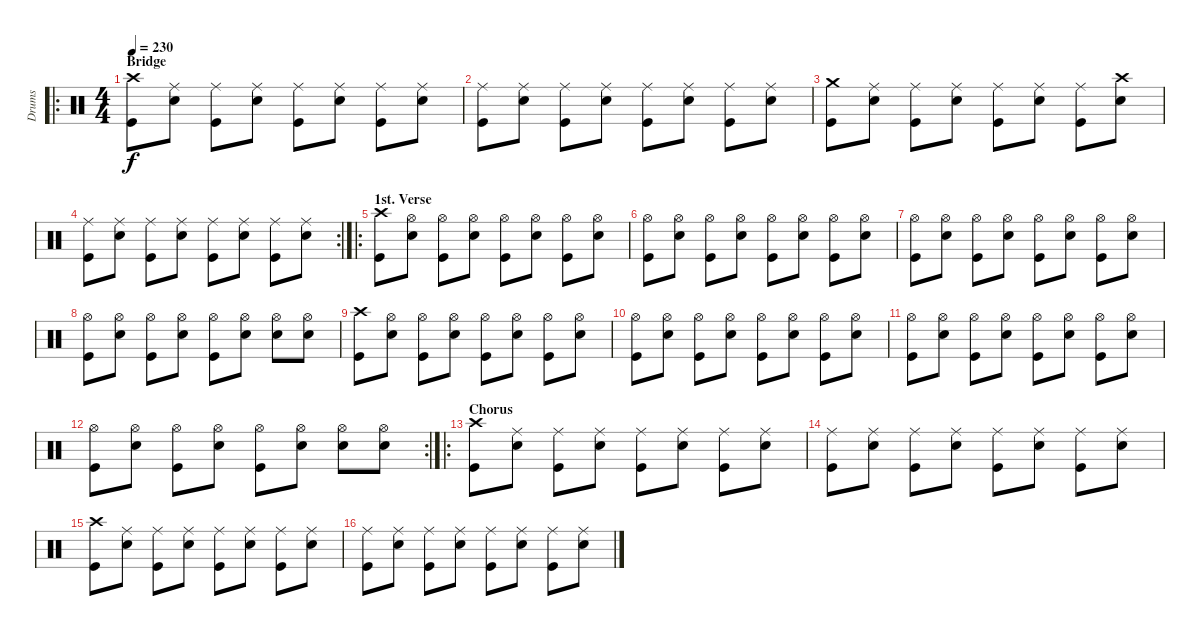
\track ("Drums" "Drums") {instrument percussion}
\staff {score}
\articulation defaults
\ro
\ts (4 4)
\section ("" "Bridge")
\tempo 230
\clef neutral
\ks c
("Crash high (hit)" "Kick (hit)").8{dy f} ("Ride (middle)" "Electric Snare (hit)").8 ("Ride (middle)" "Kick (hit)").8 ("Ride (middle)" "Electric Snare (hit)").8 ("Ride (middle)" "Kick (hit)").8 ("Ride (middle)" "Electric Snare (hit)").8 ("Ride (middle)" "Kick (hit)").8 ("Ride (middle)" "Electric Snare (hit)").8 |
("Ride (middle)" "Kick (hit)").8 ("Ride (middle)" "Electric Snare (hit)").8 ("Ride (middle)" "Kick (hit)").8 ("Ride (middle)" "Electric Snare (hit)").8 ("Ride (middle)" "Kick (hit)").8 ("Ride (middle)" "Electric Snare (hit)").8 ("Ride (middle)" "Kick (hit)").8 ("Ride (middle)" "Electric Snare (hit)").8 |
("Crash medium (hit)" "Kick (hit)").8 ("Ride (middle)" "Electric Snare (hit)").8 ("Ride (middle)" "Kick (hit)").8 ("Ride (middle)" "Electric Snare (hit)").8 ("Ride (middle)" "Kick (hit)").8 ("Ride (middle)" "Electric Snare (hit)").8 ("Ride (middle)" "Kick (hit)").8 ("Crash high (hit)" "Electric Snare (hit)").8 |
\rc 2
("Ride (middle)" "Kick (hit)").8 ("Ride (middle)" "Electric Snare (hit)").8 ("Ride (middle)" "Kick (hit)").8 ("Ride (middle)" "Electric Snare (hit)").8 ("Ride (middle)" "Kick (hit)").8 ("Ride (middle)" "Electric Snare (hit)").8 ("Ride (middle)" "Kick (hit)").8 ("Ride (middle)" "Electric Snare (hit)").8 |
\ro
\section ("" "1st. Verse")
("Crash high (hit)" "Kick (hit)").8 ("Hi-Hat (open)" "Electric Snare (hit)").8 ("Hi-Hat (open)" "Kick (hit)").8 ("Hi-Hat (open)" "Electric Snare (hit)").8 ("Hi-Hat (open)" "Kick (hit)").8 ("Hi-Hat (open)" "Electric Snare (hit)").8 ("Hi-Hat (open)" "Kick (hit)").8 ("Hi-Hat (open)" "Electric Snare (hit)").8 |
("Hi-Hat (open)" "Kick (hit)").8 ("Hi-Hat (open)" "Electric Snare (hit)").8 ("Hi-Hat (open)" "Kick (hit)").8 ("Hi-Hat (open)" "Electric Snare (hit)").8 ("Hi-Hat (open)" "Kick (hit)").8 ("Hi-Hat (open)" "Electric Snare (hit)").8 ("Hi-Hat (open)" "Kick (hit)").8 ("Hi-Hat (open)" "Electric Snare (hit)").8 |
("Hi-Hat (open)" "Kick (hit)").8 ("Hi-Hat (open)" "Electric Snare (hit)").8 ("Hi-Hat (open)" "Kick (hit)").8 ("Hi-Hat (open)" "Electric Snare (hit)").8 ("Hi-Hat (open)" "Kick (hit)").8 ("Hi-Hat (open)" "Electric Snare (hit)").8 ("Hi-Hat (open)" "Kick (hit)").8 ("Hi-Hat (open)" "Electric Snare (hit)").8 |
("Hi-Hat (open)" "Kick (hit)").8 ("Hi-Hat (open)" "Electric Snare (hit)").8 ("Hi-Hat (open)" "Kick (hit)").8 ("Hi-Hat (open)" "Electric Snare (hit)").8 ("Hi-Hat (open)" "Kick (hit)").8 ("Hi-Hat (open)" "Electric Snare (hit)").8 ("Hi-Hat (open)" "Electric Snare (hit)").8 ("Hi-Hat (open)" "Electric Snare (hit)").8 |
("Crash high (hit)" "Kick (hit)").8 ("Hi-Hat (open)" "Electric Snare (hit)").8 ("Hi-Hat (open)" "Kick (hit)").8 ("Hi-Hat (open)" "Electric Snare (hit)").8 ("Hi-Hat (open)" "Kick (hit)").8 ("Hi-Hat (open)" "Electric Snare (hit)").8 ("Hi-Hat (open)" "Kick (hit)").8 ("Hi-Hat (open)" "Electric Snare (hit)").8 |
("Hi-Hat (open)" "Kick (hit)").8 ("Hi-Hat (open)" "Electric Snare (hit)").8 ("Hi-Hat (open)" "Kick (hit)").8 ("Hi-Hat (open)" "Electric Snare (hit)").8 ("Hi-Hat (open)" "Kick (hit)").8 ("Hi-Hat (open)" "Electric Snare (hit)").8 ("Hi-Hat (open)" "Kick (hit)").8 ("Hi-Hat (open)" "Electric Snare (hit)").8 |
("Hi-Hat (open)" "Kick (hit)").8 ("Hi-Hat (open)" "Electric Snare (hit)").8 ("Hi-Hat (open)" "Kick (hit)").8 ("Hi-Hat (open)" "Electric Snare (hit)").8 ("Hi-Hat (open)" "Kick (hit)").8 ("Hi-Hat (open)" "Electric Snare (hit)").8 ("Hi-Hat (open)" "Kick (hit)").8 ("Hi-Hat (open)" "Electric Snare (hit)").8 |
\rc 2
("Hi-Hat (open)" "Kick (hit)").8 ("Hi-Hat (open)" "Electric Snare (hit)").8 ("Hi-Hat (open)" "Kick (hit)").8 ("Hi-Hat (open)" "Electric Snare (hit)").8 ("Hi-Hat (open)" "Kick (hit)").8 ("Hi-Hat (open)" "Electric Snare (hit)").8 ("Hi-Hat (open)" "Electric Snare (hit)").8 ("Hi-Hat (open)" "Electric Snare (hit)").8 |
\ro
\section ("" "Chorus")
("Crash high (hit)" "Kick (hit)").8 ("Ride (middle)" "Electric Snare (hit)").8 ("Ride (middle)" "Kick (hit)").8 ("Ride (middle)" "Electric Snare (hit)").8 ("Ride (middle)" "Kick (hit)").8 ("Ride (middle)" "Electric Snare (hit)").8 ("Ride (middle)" "Kick (hit)").8 ("Ride (middle)" "Electric Snare (hit)").8 |
("Ride (middle)" "Kick (hit)").8 ("Ride (middle)" "Electric Snare (hit)").8 ("Ride (middle)" "Kick (hit)").8 ("Ride (middle)" "Electric Snare (hit)").8 ("Ride (middle)" "Kick (hit)").8 ("Ride (middle)" "Electric Snare (hit)").8 ("Ride (middle)" "Kick (hit)").8 ("Ride (middle)" "Electric Snare (hit)").8 |
("Crash high (hit)" "Kick (hit)").8 ("Ride (middle)" "Electric Snare (hit)").8 ("Ride (middle)" "Kick (hit)").8 ("Ride (middle)" "Electric Snare (hit)").8 ("Ride (middle)" "Kick (hit)").8 ("Ride (middle)" "Electric Snare (hit)").8 ("Ride (middle)" "Kick (hit)").8 ("Ride (middle)" "Electric Snare (hit)").8 |
("Ride (middle)" "Kick (hit)").8 ("Ride (middle)" "Electric Snare (hit)").8 ("Ride (middle)" "Kick (hit)").8 ("Ride (middle)" "Electric Snare (hit)").8 ("Ride (middle)" "Kick (hit)").8 ("Ride (middle)" "Electric Snare (hit)").8 ("Ride (middle)" "Kick (hit)").8 ("Ride (middle)" "Electric Snare (hit)").8
